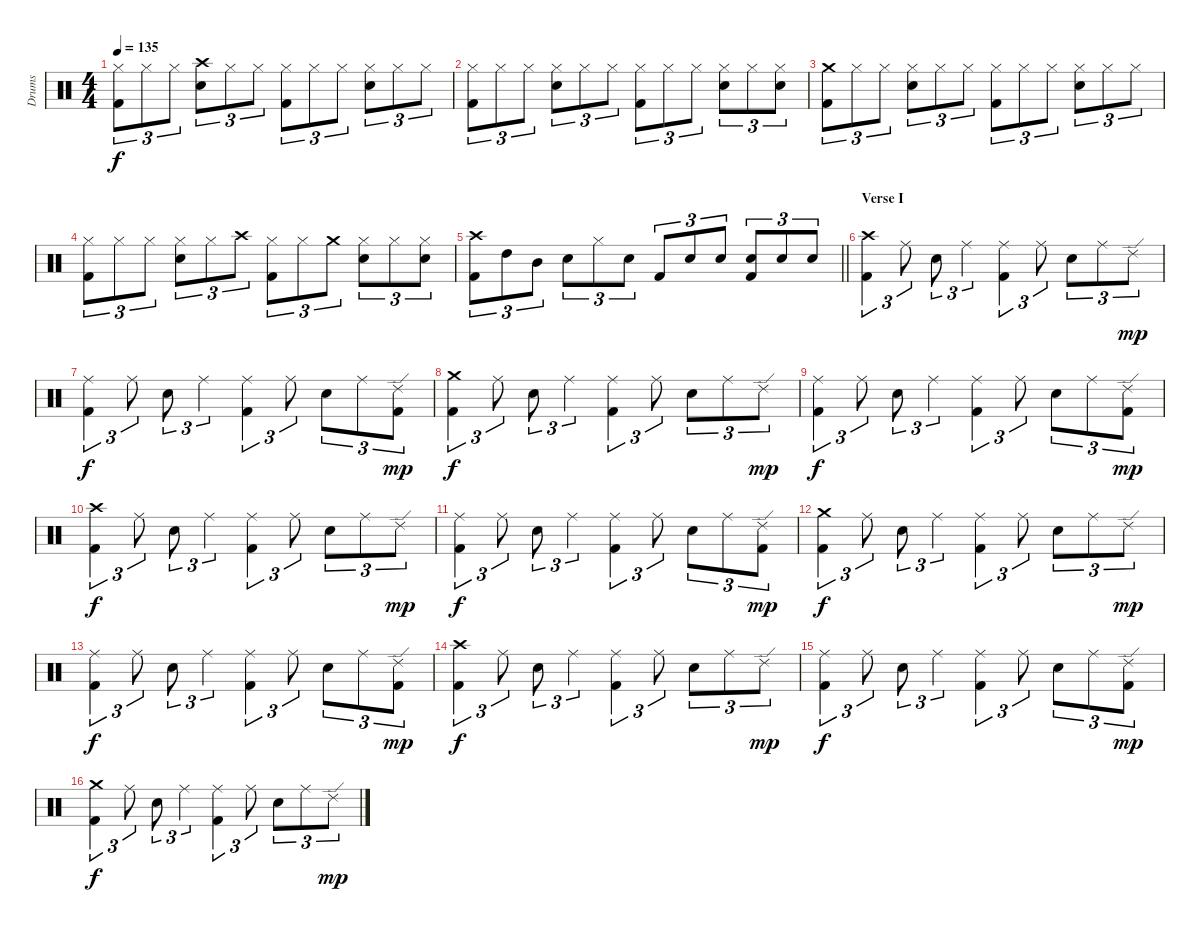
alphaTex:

\track ("Drums" "Drums") {instrument percussion}
\staff {score}
\articulation defaults
\ts (4 4)
\tempo 135
\clef neutral
\ks c
("Hi-Hat (closed)" "Kick (hit) 2").8{tu (3 2) dy f} "Hi-Hat (closed)".8{tu (3 2)} "Hi-Hat (closed)".8{tu (3 2)} ("Crash high (hit)" "Snare (hit) 2").8{tu (3 2)} "Hi-Hat (closed)".8{tu (3 2)} "Hi-Hat (closed)".8{tu (3 2)} ("Hi-Hat (closed)" "Kick (hit) 2").8{tu (3 2)} "Hi-Hat (closed)".8{tu (3 2)} "Hi-Hat (closed)".8{tu (3 2)} ("Hi-Hat (closed)" "Snare (hit) 2").8{tu (3 2)} "Hi-Hat (closed)".8{tu (3 2)} "Hi-Hat (closed)".8{tu (3 2)} |
("Hi-Hat (closed)" "Kick (hit) 2").8{tu (3 2)} "Hi-Hat (closed)".8{tu (3 2)} "Hi-Hat (closed)".8{tu (3 2)} ("Hi-Hat (closed)" "Snare (hit) 2").8{tu (3 2)} "Hi-Hat (closed)".8{tu (3 2)} "Hi-Hat (closed)".8{tu (3 2)} ("Hi-Hat (closed)" "Kick (hit) 2").8{tu (3 2)} "Hi-Hat (closed)".8{tu (3 2)} "Hi-Hat (closed)".8{tu (3 2)} ("Hi-Hat (closed)" "Snare (hit) 2").8{tu (3 2)} "Hi-Hat (closed)".8{tu (3 2)} ("Hi-Hat (closed)" "Snare (hit) 2").8{tu (3 2)} |
("Crash medium (hit)" "Kick (hit) 2").8{tu (3 2)} "Hi-Hat (closed)".8{tu (3 2)} "Hi-Hat (closed)".8{tu (3 2)} ("Hi-Hat (closed)" "Snare (hit) 2").8{tu (3 2)} "Hi-Hat (closed)".8{tu (3 2)} "Hi-Hat (closed)".8{tu (3 2)} ("Hi-Hat (closed)" "Kick (hit) 2").8{tu (3 2)} "Hi-Hat (closed)".8{tu (3 2)} "Hi-Hat (closed)".8{tu (3 2)} ("Hi-Hat (closed)" "Snare (hit) 2").8{tu (3 2)} "Hi-Hat (closed)".8{tu (3 2)} "Hi-Hat (closed)".8{tu (3 2)} |
("Hi-Hat (closed)" "Kick (hit) 2").8{tu (3 2)} "Hi-Hat (closed)".8{tu (3 2)} "Hi-Hat (closed)".8{tu (3 2)} ("Hi-Hat (closed)" "Snare (hit) 2").8{tu (3 2)} "Hi-Hat (closed)".8{tu (3 2)} "Crash high (hit)".8{tu (3 2)} ("Hi-Hat (closed)" "Kick (hit) 2").8{tu (3 2)} "Hi-Hat (closed)".8{tu (3 2)} "Crash medium (hit)".8{tu (3 2)} ("Hi-Hat (closed)" "Snare (hit) 2").8{tu (3 2)} "Hi-Hat (closed)".8{tu (3 2)} ("Hi-Hat (closed)" "Snare (hit) 2").8{tu (3 2)} |
\barLineRight lightlight
("Crash high (hit)" "Kick (hit) 2").8{tu (3 2)} "High Tom (hit)".8{tu (3 2)} "Mid Tom (hit)".8{tu (3 2)} "Snare (hit) 2".8{tu (3 2)} "Hi-Hat (closed)".8{tu (3 2)} "Snare (hit) 2".8{tu (3 2)} "Kick (hit) 2".8{tu (3 2)} "Snare (hit) 2".8{tu (3 2)} "Snare (hit) 2".8{tu (3 2)} ("Snare (hit) 2" "Kick (hit) 2").8{tu (3 2)} "Snare (hit) 2".8{tu (3 2)} "Snare (hit) 2".8{tu (3 2)} |
\section ("" "Verse I")
("Crash high (hit)" "Kick (hit) 2").4{tu (3 2)} "Ride (middle)".8{tu (3 2)} "Snare (hit) 2".8{tu (3 2)} "Ride (middle)".4{tu (3 2)} ("Ride (middle)" "Kick (hit) 2").4{tu (3 2)} "Ride (middle)".8{tu (3 2)} "Snare (hit) 2".8{tu (3 2)} "Ride (middle)".8{tu (3 2)} "Ride (edge) 2".8{tu (3 2) dy mp} |
("Ride (middle)" "Kick (hit) 2").4{tu (3 2) dy f} "Ride (middle)".8{tu (3 2)} "Snare (hit) 2".8{tu (3 2)} "Ride (middle)".4{tu (3 2)} ("Ride (middle)" "Kick (hit) 2").4{tu (3 2)} "Ride (middle)".8{tu (3 2)} "Snare (hit) 2".8{tu (3 2)} "Ride (middle)".8{tu (3 2)} ("Ride (edge) 2" "Kick (hit) 2").8{tu (3 2) dy mp} |
("Crash medium (hit)" "Kick (hit) 2").4{tu (3 2) dy f} "Ride (middle)".8{tu (3 2)} "Snare (hit) 2".8{tu (3 2)} "Ride (middle)".4{tu (3 2)} ("Ride (middle)" "Kick (hit) 2").4{tu (3 2)} "Ride (middle)".8{tu (3 2)} "Snare (hit) 2".8{tu (3 2)} "Ride (middle)".8{tu (3 2)} "Ride (edge) 2".8{tu (3 2) dy mp} |
("Ride (middle)" "Kick (hit) 2").4{tu (3 2) dy f} "Ride (middle)".8{tu (3 2)} "Snare (hit) 2".8{tu (3 2)} "Ride (middle)".4{tu (3 2)} ("Ride (middle)" "Kick (hit) 2").4{tu (3 2)} "Ride (middle)".8{tu (3 2)} "Snare (hit) 2".8{tu (3 2)} "Ride (middle)".8{tu (3 2)} ("Ride (edge) 2" "Kick (hit) 2").8{tu (3 2) dy mp} |
("Crash high (hit)" "Kick (hit) 2").4{tu (3 2) dy f} "Ride (middle)".8{tu (3 2)} "Snare (hit) 2".8{tu (3 2)} "Ride (middle)".4{tu (3 2)} ("Ride (middle)" "Kick (hit) 2").4{tu (3 2)} "Ride (middle)".8{tu (3 2)} "Snare (hit) 2".8{tu (3 2)} "Ride (middle)".8{tu (3 2)} "Ride (edge) 2".8{tu (3 2) dy mp} |
("Ride (middle)" "Kick (hit) 2").4{tu (3 2) dy f} "Ride (middle)".8{tu (3 2)} "Snare (hit) 2".8{tu (3 2)} "Ride (middle)".4{tu (3 2)} ("Ride (middle)" "Kick (hit) 2").4{tu (3 2)} "Ride (middle)".8{tu (3 2)} "Snare (hit) 2".8{tu (3 2)} "Ride (middle)".8{tu (3 2)} ("Ride (edge) 2" "Kick (hit) 2").8{tu (3 2) dy mp} |
("Crash medium (hit)" "Kick (hit) 2").4{tu (3 2) dy f} "Ride (middle)".8{tu (3 2)} "Snare (hit) 2".8{tu (3 2)} "Ride (middle)".4{tu (3 2)} ("Ride (middle)" "Kick (hit) 2").4{tu (3 2)} "Ride (middle)".8{tu (3 2)} "Snare (hit) 2".8{tu (3 2)} "Ride (middle)".8{tu (3 2)} "Ride (edge) 2".8{tu (3 2) dy mp} |
("Ride (middle)" "Kick (hit) 2").4{tu (3 2) dy f} "Ride (middle)".8{tu (3 2)} "Snare (hit) 2".8{tu (3 2)} "Ride (middle)".4{tu (3 2)} ("Ride (middle)" "Kick (hit) 2").4{tu (3 2)} "Ride (middle)".8{tu (3 2)} "Snare (hit) 2".8{tu (3 2)} "Ride (middle)".8{tu (3 2)} ("Ride (edge) 2" "Kick (hit) 2").8{tu (3 2) dy mp} |
("Crash high (hit)" "Kick (hit) 2").4{tu (3 2) dy f} "Ride (middle)".8{tu (3 2)} "Snare (hit) 2".8{tu (3 2)} "Ride (middle)".4{tu (3 2)} ("Ride (middle)" "Kick (hit) 2").4{tu (3 2)} "Ride (middle)".8{tu (3 2)} "Snare (hit) 2".8{tu (3 2)} "Ride (middle)".8{tu (3 2)} "Ride (edge) 2".8{tu (3 2) dy mp} |
("Ride (middle)" "Kick (hit) 2").4{tu (3 2) dy f} "Ride (middle)".8{tu (3 2)} "Snare (hit) 2".8{tu (3 2)} "Ride (middle)".4{tu (3 2)} ("Ride (middle)" "Kick (hit) 2").4{tu (3 2)} "Ride (middle)".8{tu (3 2)} "Snare (hit) 2".8{tu (3 2)} "Ride (middle)".8{tu (3 2)} ("Ride (edge) 2" "Kick (hit) 2").8{tu (3 2) dy mp} |
("Crash medium (hit)" "Kick (hit) 2").4{tu (3 2) dy f} "Ride (middle)".8{tu (3 2)} "Snare (hit) 2".8{tu (3 2)} "Ride (middle)".4{tu (3 2)} ("Ride (middle)" "Kick (hit) 2").4{tu (3 2)} "Ride (middle)".8{tu (3 2)} "Snare (hit) 2".8{tu (3 2)} "Ride (middle)".8{tu (3 2)} "Ride (edge) 2".8{tu (3 2) dy mp}
